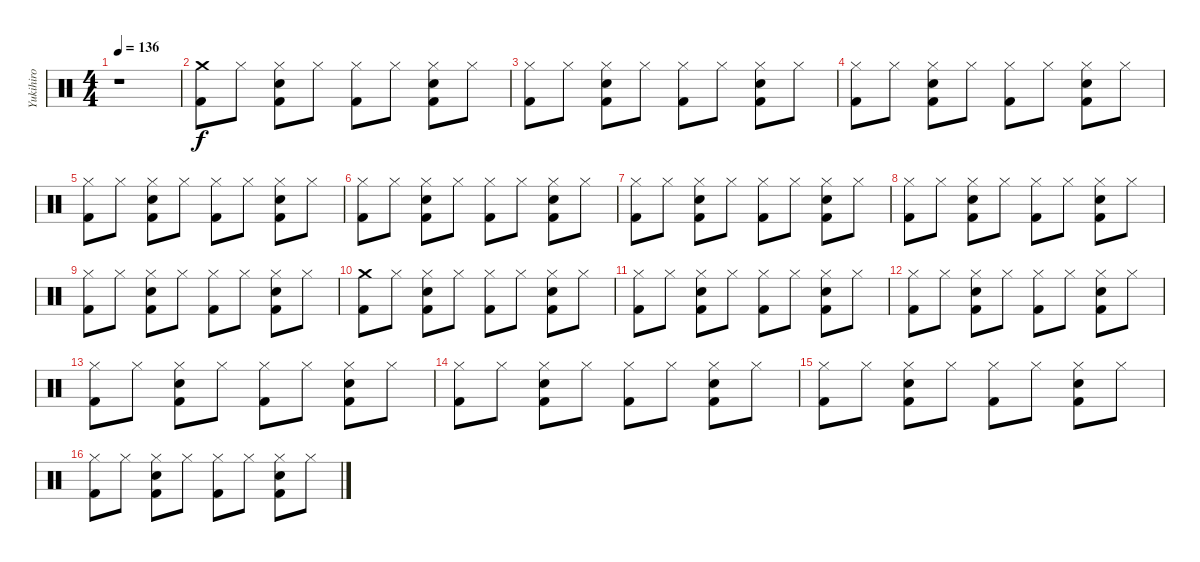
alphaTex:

\track ("Yukihiro" "Yukihiro") {instrument percussion}
\staff {score}
\articulation defaults
\ts (4 4)
\tempo 136
\clef neutral
\ks c
r.1{dy f} |
("Crash medium (hit)" "Kick (hit) 2").8 "Hi-Hat (closed)".8 ("Hi-Hat (closed)" "Snare (hit) 2" "Kick (hit) 2").8 "Hi-Hat (closed)".8 ("Hi-Hat (closed)" "Kick (hit) 2").8 "Hi-Hat (closed)".8 ("Hi-Hat (closed)" "Snare (hit) 2" "Kick (hit) 2").8 "Hi-Hat (closed)".8 |
("Hi-Hat (closed)" "Kick (hit) 2").8 "Hi-Hat (closed)".8 ("Hi-Hat (closed)" "Snare (hit) 2" "Kick (hit) 2").8 "Hi-Hat (closed)".8 ("Hi-Hat (closed)" "Kick (hit) 2").8 "Hi-Hat (closed)".8 ("Hi-Hat (closed)" "Snare (hit) 2" "Kick (hit) 2").8 "Hi-Hat (closed)".8 |
("Hi-Hat (closed)" "Kick (hit) 2").8 "Hi-Hat (closed)".8 ("Hi-Hat (closed)" "Snare (hit) 2" "Kick (hit) 2").8 "Hi-Hat (closed)".8 ("Hi-Hat (closed)" "Kick (hit) 2").8 "Hi-Hat (closed)".8 ("Hi-Hat (closed)" "Snare (hit) 2" "Kick (hit) 2").8 "Hi-Hat (closed)".8 |
("Hi-Hat (closed)" "Kick (hit) 2").8 "Hi-Hat (closed)".8 ("Hi-Hat (closed)" "Snare (hit) 2" "Kick (hit) 2").8 "Hi-Hat (closed)".8 ("Hi-Hat (closed)" "Kick (hit) 2").8 "Hi-Hat (closed)".8 ("Hi-Hat (closed)" "Snare (hit) 2" "Kick (hit) 2").8 "Hi-Hat (closed)".8 |
("Hi-Hat (closed)" "Kick (hit) 2").8 "Hi-Hat (closed)".8 ("Hi-Hat (closed)" "Snare (hit) 2" "Kick (hit) 2").8 "Hi-Hat (closed)".8 ("Hi-Hat (closed)" "Kick (hit) 2").8 "Hi-Hat (closed)".8 ("Hi-Hat (closed)" "Snare (hit) 2" "Kick (hit) 2").8 "Hi-Hat (closed)".8 |
("Hi-Hat (closed)" "Kick (hit) 2").8 "Hi-Hat (closed)".8 ("Hi-Hat (closed)" "Snare (hit) 2" "Kick (hit) 2").8 "Hi-Hat (closed)".8 ("Hi-Hat (closed)" "Kick (hit) 2").8 "Hi-Hat (closed)".8 ("Hi-Hat (closed)" "Snare (hit) 2" "Kick (hit) 2").8 "Hi-Hat (closed)".8 |
("Hi-Hat (closed)" "Kick (hit) 2").8 "Hi-Hat (closed)".8 ("Hi-Hat (closed)" "Snare (hit) 2" "Kick (hit) 2").8 "Hi-Hat (closed)".8 ("Hi-Hat (closed)" "Kick (hit) 2").8 "Hi-Hat (closed)".8 ("Hi-Hat (closed)" "Snare (hit) 2" "Kick (hit) 2").8 "Hi-Hat (closed)".8 |
("Hi-Hat (closed)" "Kick (hit) 2").8 "Hi-Hat (closed)".8 ("Hi-Hat (closed)" "Snare (hit) 2" "Kick (hit) 2").8 "Hi-Hat (closed)".8 ("Hi-Hat (closed)" "Kick (hit) 2").8 "Hi-Hat (closed)".8 ("Hi-Hat (closed)" "Snare (hit) 2" "Kick (hit) 2").8 "Hi-Hat (closed)".8 |
("Crash medium (hit)" "Kick (hit) 2").8 "Hi-Hat (closed)".8 ("Hi-Hat (closed)" "Snare (hit) 2" "Kick (hit) 2").8 "Hi-Hat (closed)".8 ("Hi-Hat (closed)" "Kick (hit) 2").8 "Hi-Hat (closed)".8 ("Hi-Hat (closed)" "Snare (hit) 2" "Kick (hit) 2").8 "Hi-Hat (closed)".8 |
("Hi-Hat (closed)" "Kick (hit) 2").8 "Hi-Hat (closed)".8 ("Hi-Hat (closed)" "Snare (hit) 2" "Kick (hit) 2").8 "Hi-Hat (closed)".8 ("Hi-Hat (closed)" "Kick (hit) 2").8 "Hi-Hat (closed)".8 ("Hi-Hat (closed)" "Snare (hit) 2" "Kick (hit) 2").8 "Hi-Hat (closed)".8 |
("Hi-Hat (closed)" "Kick (hit) 2").8 "Hi-Hat (closed)".8 ("Hi-Hat (closed)" "Snare (hit) 2" "Kick (hit) 2").8 "Hi-Hat (closed)".8 ("Hi-Hat (closed)" "Kick (hit) 2").8 "Hi-Hat (closed)".8 ("Hi-Hat (closed)" "Snare (hit) 2" "Kick (hit) 2").8 "Hi-Hat (closed)".8 |
("Hi-Hat (closed)" "Kick (hit) 2").8 "Hi-Hat (closed)".8 ("Hi-Hat (closed)" "Snare (hit) 2" "Kick (hit) 2").8 "Hi-Hat (closed)".8 ("Hi-Hat (closed)" "Kick (hit) 2").8 "Hi-Hat (closed)".8 ("Hi-Hat (closed)" "Snare (hit) 2" "Kick (hit) 2").8 "Hi-Hat (closed)".8 |
("Hi-Hat (closed)" "Kick (hit) 2").8 "Hi-Hat (closed)".8 ("Hi-Hat (closed)" "Snare (hit) 2" "Kick (hit) 2").8 "Hi-Hat (closed)".8 ("Hi-Hat (closed)" "Kick (hit) 2").8 "Hi-Hat (closed)".8 ("Hi-Hat (closed)" "Snare (hit) 2" "Kick (hit) 2").8 "Hi-Hat (closed)".8 |
("Hi-Hat (closed)" "Kick (hit) 2").8 "Hi-Hat (closed)".8 ("Hi-Hat (closed)" "Snare (hit) 2" "Kick (hit) 2").8 "Hi-Hat (closed)".8 ("Hi-Hat (closed)" "Kick (hit) 2").8 "Hi-Hat (closed)".8 ("Hi-Hat (closed)" "Snare (hit) 2" "Kick (hit) 2").8 "Hi-Hat (closed)".8 |
("Hi-Hat (closed)" "Kick (hit) 2").8 "Hi-Hat (closed)".8 ("Hi-Hat (closed)" "Snare (hit) 2" "Kick (hit) 2").8 "Hi-Hat (closed)".8 ("Hi-Hat (closed)" "Kick (hit) 2").8 "Hi-Hat (closed)".8 ("Hi-Hat (closed)" "Snare (hit) 2" "Kick (hit) 2").8 "Hi-Hat (closed)".8
